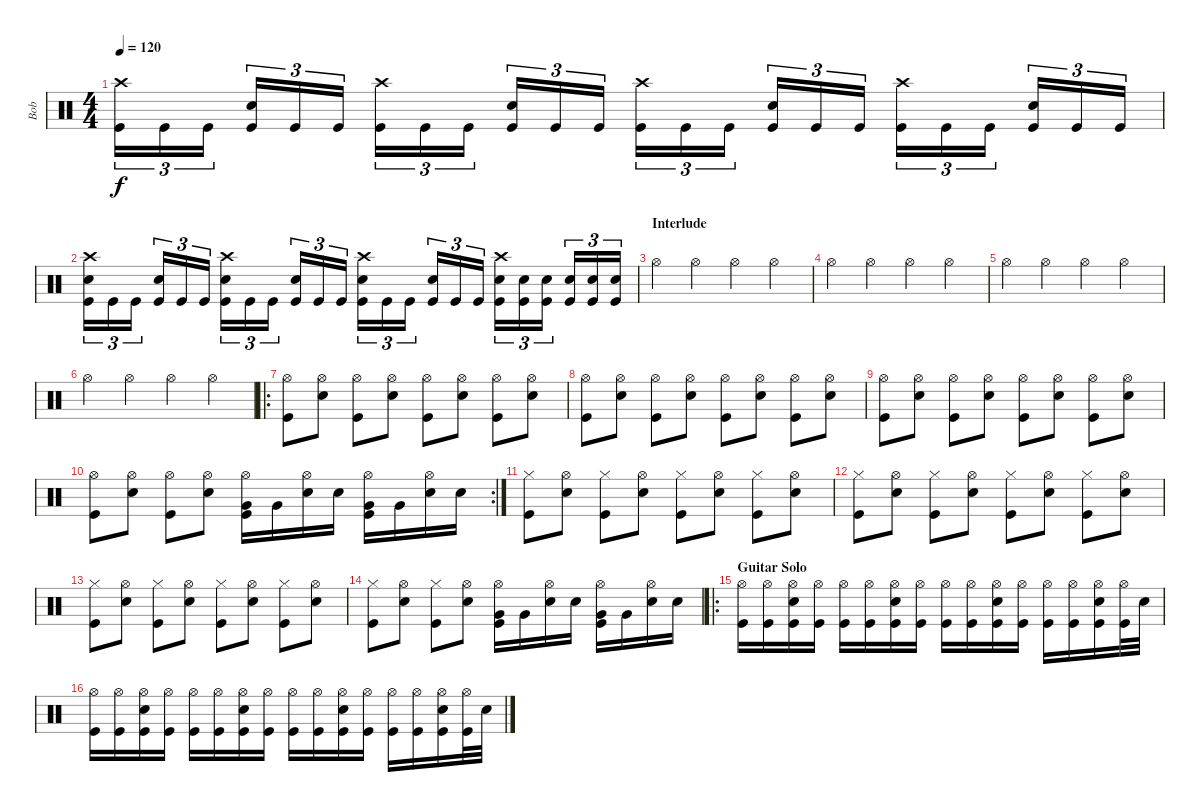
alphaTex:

\track ("Bob" "Bob") {instrument percussion}
\staff {score}
\articulation defaults
\ts (4 4)
\tempo 120
\clef neutral
\ks c
("Crash high (hit)" "Kick (hit)").16{tu (3 2) dy f} "Kick (hit)".16{tu (3 2)} "Kick (hit)".16{tu (3 2)} ("Snare (hit) 2" "Kick (hit)").16{tu (3 2)} "Kick (hit)".16{tu (3 2)} "Kick (hit)".16{tu (3 2)} ("Crash high (hit)" "Kick (hit)").16{tu (3 2)} "Kick (hit)".16{tu (3 2)} "Kick (hit)".16{tu (3 2)} ("Snare (hit) 2" "Kick (hit)").16{tu (3 2)} "Kick (hit)".16{tu (3 2)} "Kick (hit)".16{tu (3 2)} ("Crash high (hit)" "Kick (hit)").16{tu (3 2)} "Kick (hit)".16{tu (3 2)} "Kick (hit)".16{tu (3 2)} ("Snare (hit) 2" "Kick (hit)").16{tu (3 2)} "Kick (hit)".16{tu (3 2)} "Kick (hit)".16{tu (3 2)} ("Crash high (hit)" "Kick (hit)").16{tu (3 2)} "Kick (hit)".16{tu (3 2)} "Kick (hit)".16{tu (3 2)} ("Snare (hit) 2" "Kick (hit)").16{tu (3 2)} "Kick (hit)".16{tu (3 2)} "Kick (hit)".16{tu (3 2)} |
("Crash high (hit)" "Snare (hit) 2" "Kick (hit)").16{tu (3 2)} "Kick (hit)".16{tu (3 2)} "Kick (hit)".16{tu (3 2)} ("Snare (hit) 2" "Kick (hit)").16{tu (3 2)} "Kick (hit)".16{tu (3 2)} "Kick (hit)".16{tu (3 2)} ("Crash high (hit)" "Snare (hit) 2" "Kick (hit)").16{tu (3 2)} "Kick (hit)".16{tu (3 2)} "Kick (hit)".16{tu (3 2)} ("Snare (hit) 2" "Kick (hit)").16{tu (3 2)} "Kick (hit)".16{tu (3 2)} "Kick (hit)".16{tu (3 2)} ("Crash high (hit)" "Snare (hit) 2" "Kick (hit)").16{tu (3 2)} "Kick (hit)".16{tu (3 2)} "Kick (hit)".16{tu (3 2)} ("Snare (hit) 2" "Kick (hit)").16{tu (3 2)} "Kick (hit)".16{tu (3 2)} "Kick (hit)".16{tu (3 2)} ("Crash high (hit)" "Snare (hit) 2" "Kick (hit)").16{tu (3 2)} ("Snare (hit) 2" "Kick (hit)").16{tu (3 2)} ("Snare (hit) 2" "Kick (hit)").16{tu (3 2)} ("Snare (hit) 2" "Kick (hit)").16{tu (3 2)} ("Snare (hit) 2" "Kick (hit)").16{tu (3 2)} ("Snare (hit) 2" "Kick (hit)").16{tu (3 2)} |
\section ("" "Interlude")
"Hi-Hat (open)".4 "Hi-Hat (open)".4 "Hi-Hat (open)".4 "Hi-Hat (open)".4 |
"Hi-Hat (open)".4 "Hi-Hat (open)".4 "Hi-Hat (open)".4 "Hi-Hat (open)".4 |
"Hi-Hat (open)".4 "Hi-Hat (open)".4 "Hi-Hat (open)".4 "Hi-Hat (open)".4 |
"Hi-Hat (open)".4 "Hi-Hat (open)".4 "Hi-Hat (open)".4 "Hi-Hat (open)".4 |
\ro
("Hi-Hat (open)" "Kick (hit)").8 ("Hi-Hat (open)" "Snare (hit) 2").8 ("Hi-Hat (open)" "Kick (hit)").8 ("Hi-Hat (open)" "Snare (hit) 2").8 ("Hi-Hat (open)" "Kick (hit)").8 ("Hi-Hat (open)" "Snare (hit) 2").8 ("Hi-Hat (open)" "Kick (hit)").8 ("Hi-Hat (open)" "Snare (hit) 2").8 |
("Hi-Hat (open)" "Kick (hit)").8 ("Hi-Hat (open)" "Snare (hit) 2").8 ("Hi-Hat (open)" "Kick (hit)").8 ("Hi-Hat (open)" "Snare (hit) 2").8 ("Hi-Hat (open)" "Kick (hit)").8 ("Hi-Hat (open)" "Snare (hit) 2").8 ("Hi-Hat (open)" "Kick (hit)").8 ("Hi-Hat (open)" "Snare (hit) 2").8 |
("Hi-Hat (open)" "Kick (hit)").8 ("Hi-Hat (open)" "Snare (hit) 2").8 ("Hi-Hat (open)" "Kick (hit)").8 ("Hi-Hat (open)" "Snare (hit) 2").8 ("Hi-Hat (open)" "Kick (hit)").8 ("Hi-Hat (open)" "Snare (hit) 2").8 ("Hi-Hat (open)" "Kick (hit)").8 ("Hi-Hat (open)" "Snare (hit) 2").8 |
\rc 2
("Hi-Hat (open)" "Kick (hit)").8 ("Hi-Hat (open)" "Snare (hit) 2").8 ("Hi-Hat (open)" "Kick (hit)").8 ("Hi-Hat (open)" "Snare (hit) 2").8 ("Hi-Hat (open)" "Very Low Tom (hit)" "Kick (hit)").16 "Very Low Tom (hit)".16 ("Hi-Hat (open)" "Snare (hit) 2").16 "Snare (hit) 2".16 ("Hi-Hat (open)" "Very Low Tom (hit)" "Kick (hit)").16 "Very Low Tom (hit)".16 ("Hi-Hat (open)" "Snare (hit) 2").16 "Snare (hit) 2".16 |
("Hi-Hat (closed)" "Kick (hit)").8 ("Hi-Hat (open)" "Snare (hit) 2").8 ("Hi-Hat (closed)" "Kick (hit)").8 ("Hi-Hat (open)" "Snare (hit) 2").8 ("Hi-Hat (closed)" "Kick (hit)").8 ("Hi-Hat (open)" "Snare (hit) 2").8 ("Hi-Hat (closed)" "Kick (hit)").8 ("Hi-Hat (open)" "Snare (hit) 2").8 |
("Hi-Hat (closed)" "Kick (hit)").8 ("Hi-Hat (open)" "Snare (hit) 2").8 ("Hi-Hat (closed)" "Kick (hit)").8 ("Hi-Hat (open)" "Snare (hit) 2").8 ("Hi-Hat (closed)" "Kick (hit)").8 ("Hi-Hat (open)" "Snare (hit) 2").8 ("Hi-Hat (closed)" "Kick (hit)").8 ("Hi-Hat (open)" "Snare (hit) 2").8 |
("Hi-Hat (closed)" "Kick (hit)").8 ("Hi-Hat (open)" "Snare (hit) 2").8 ("Hi-Hat (closed)" "Kick (hit)").8 ("Hi-Hat (open)" "Snare (hit) 2").8 ("Hi-Hat (closed)" "Kick (hit)").8 ("Hi-Hat (open)" "Snare (hit) 2").8 ("Hi-Hat (closed)" "Kick (hit)").8 ("Hi-Hat (open)" "Snare (hit) 2").8 |
("Hi-Hat (closed)" "Kick (hit)").8 ("Hi-Hat (open)" "Snare (hit) 2").8 ("Hi-Hat (closed)" "Kick (hit)").8 ("Hi-Hat (open)" "Snare (hit) 2").8 ("Hi-Hat (open)" "Very Low Tom (hit)" "Kick (hit)").16 "Very Low Tom (hit)".16 ("Hi-Hat (open)" "Snare (hit) 2").16 "Snare (hit) 2".16 ("Hi-Hat (open)" "Very Low Tom (hit)" "Kick (hit)").16 "Very Low Tom (hit)".16 ("Hi-Hat (open)" "Snare (hit) 2").16 "Snare (hit) 2".16 |
\ro
\section ("" "Guitar Solo")
("Hi-Hat (open)" "Kick (hit)").16 ("Hi-Hat (open)" "Kick (hit)").16 ("Hi-Hat (open)" "Snare (hit) 2" "Kick (hit)").16 ("Hi-Hat (open)" "Kick (hit)").16 ("Hi-Hat (open)" "Kick (hit)").16 ("Hi-Hat (open)" "Kick (hit)").16 ("Hi-Hat (open)" "Snare (hit) 2" "Kick (hit)").16 ("Hi-Hat (open)" "Kick (hit)").16 ("Hi-Hat (open)" "Kick (hit)").16 ("Hi-Hat (open)" "Kick (hit)").16 ("Hi-Hat (open)" "Snare (hit) 2" "Kick (hit)").16 ("Hi-Hat (open)" "Kick (hit)").16 ("Hi-Hat (open)" "Kick (hit)").16 ("Hi-Hat (open)" "Kick (hit)").16 ("Hi-Hat (open)" "Snare (hit) 2" "Kick (hit)").16 ("Hi-Hat (open)" "Kick (hit)").32 "Snare (hit) 2".32 |
("Hi-Hat (open)" "Kick (hit)").16 ("Hi-Hat (open)" "Kick (hit)").16 ("Hi-Hat (open)" "Snare (hit) 2" "Kick (hit)").16 ("Hi-Hat (open)" "Kick (hit)").16 ("Hi-Hat (open)" "Kick (hit)").16 ("Hi-Hat (open)" "Kick (hit)").16 ("Hi-Hat (open)" "Snare (hit) 2" "Kick (hit)").16 ("Hi-Hat (open)" "Kick (hit)").16 ("Hi-Hat (open)" "Kick (hit)").16 ("Hi-Hat (open)" "Kick (hit)").16 ("Hi-Hat (open)" "Snare (hit) 2" "Kick (hit)").16 ("Hi-Hat (open)" "Kick (hit)").16 ("Hi-Hat (open)" "Kick (hit)").16 ("Hi-Hat (open)" "Kick (hit)").16 ("Hi-Hat (open)" "Snare (hit) 2" "Kick (hit)").16 ("Hi-Hat (open)" "Kick (hit)").32 "Snare (hit) 2".32
